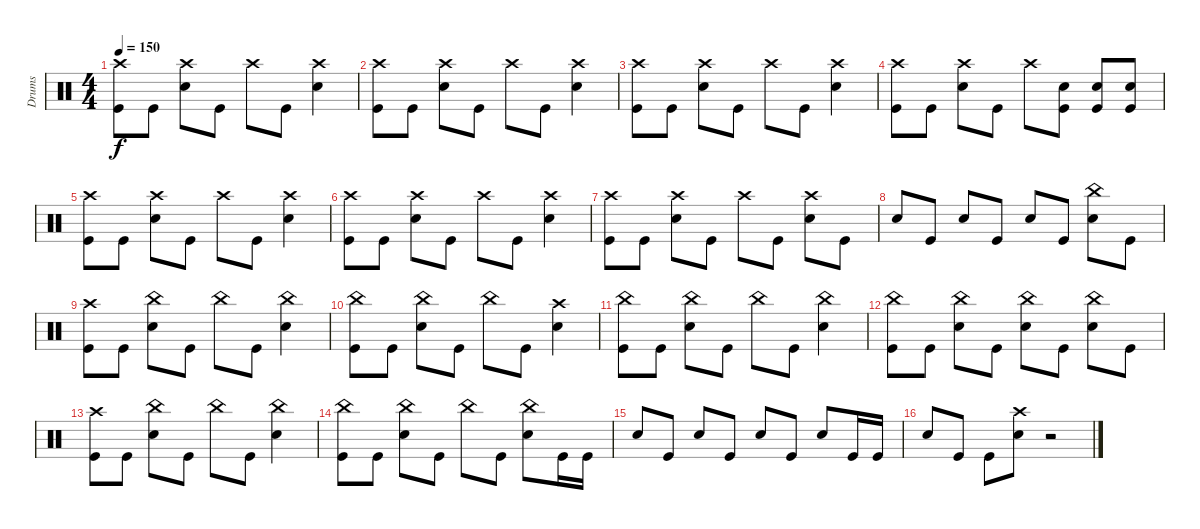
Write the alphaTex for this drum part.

\track ("Drums" "Drums") {instrument percussion}
\staff {score}
\articulation defaults
\ts (4 4)
\tempo 150
\clef neutral
\ks c
("Kick (hit)" "Crash high (hit)").8{dy f} "Kick (hit)".8 ("Snare (hit) 2" "Crash high (hit)").8 "Kick (hit)".8 "Crash high (hit)".8 "Kick (hit)".8 ("Snare (hit) 2" "Crash high (hit)").4 |
("Kick (hit)" "Crash high (hit)").8 "Kick (hit)".8 ("Snare (hit) 2" "Crash high (hit)").8 "Kick (hit)".8 "Crash high (hit)".8 "Kick (hit)".8 ("Snare (hit) 2" "Crash high (hit)").4 |
("Kick (hit)" "Crash high (hit)").8 "Kick (hit)".8 ("Snare (hit) 2" "Crash high (hit)").8 "Kick (hit)".8 "Crash high (hit)".8 "Kick (hit)".8 ("Snare (hit) 2" "Crash high (hit)").4 |
("Kick (hit)" "Crash high (hit)").8 "Kick (hit)".8 ("Snare (hit) 2" "Crash high (hit)").8 "Kick (hit)".8 "Crash high (hit)".8 ("Kick (hit)" "Snare (hit) 2").8 ("Snare (hit) 2" "Kick (hit)").8 ("Snare (hit) 2" "Kick (hit)").8 |
("Kick (hit)" "Crash high (hit)").8 "Kick (hit)".8 ("Snare (hit) 2" "Crash high (hit)").8 "Kick (hit)".8 "Crash high (hit)".8 "Kick (hit)".8 ("Snare (hit) 2" "Crash high (hit)").4 |
("Kick (hit)" "Crash high (hit)").8 "Kick (hit)".8 ("Snare (hit) 2" "Crash high (hit)").8 "Kick (hit)".8 "Crash high (hit)".8 "Kick (hit)".8 ("Snare (hit) 2" "Crash high (hit)").4 |
("Kick (hit)" "Crash high (hit)").8 "Kick (hit)".8 ("Snare (hit) 2" "Crash high (hit)").8 "Kick (hit)".8 "Crash high (hit)".8 "Kick (hit)".8 ("Snare (hit) 2" "Crash high (hit)").8 "Kick (hit)".8 |
"Snare (hit) 2".8 "Kick (hit)".8 "Snare (hit) 2".8 "Kick (hit)".8 "Snare (hit) 2".8 "Kick (hit)".8 ("Snare (hit) 2" "China (hit)").8 "Kick (hit)".8 |
("Kick (hit)" "Crash high (hit)").8 "Kick (hit)".8 ("Snare (hit) 2" "China (hit)").8 "Kick (hit)".8 "China (hit)".8 "Kick (hit)".8 ("Snare (hit) 2" "China (hit)").4 |
("Kick (hit)" "China (hit)").8 "Kick (hit)".8 ("Snare (hit) 2" "China (hit)").8 "Kick (hit)".8 "China (hit)".8 "Kick (hit)".8 ("Snare (hit) 2" "Crash high (hit)").4 |
("Kick (hit)" "China (hit)").8 "Kick (hit)".8 ("Snare (hit) 2" "China (hit)").8 "Kick (hit)".8 "China (hit)".8 "Kick (hit)".8 ("Snare (hit) 2" "China (hit)").4 |
("Kick (hit)" "China (hit)").8 "Kick (hit)".8 ("Snare (hit) 2" "China (hit)").8 "Kick (hit)".8 ("Snare (hit) 2" "China (hit)").8 "Kick (hit)".8 ("Snare (hit) 2" "China (hit)").8 "Kick (hit)".8 |
("Kick (hit)" "Crash high (hit)").8 "Kick (hit)".8 ("Snare (hit) 2" "China (hit)").8 "Kick (hit)".8 "China (hit)".8 "Kick (hit)".8 ("Snare (hit) 2" "China (hit)").4 |
("Kick (hit)" "China (hit)").8 "Kick (hit)".8 ("Snare (hit) 2" "China (hit)").8 "Kick (hit)".8 "China (hit)".8 "Kick (hit)".8 ("Snare (hit) 2" "China (hit)").8 "Kick (hit)".16 "Kick (hit)".16 |
"Snare (hit) 2".8 "Kick (hit)".8 "Snare (hit) 2".8 "Kick (hit)".8 "Snare (hit) 2".8 "Kick (hit)".8 "Snare (hit) 2".8 "Kick (hit)".16 "Kick (hit)".16 |
"Snare (hit) 2".8 "Kick (hit)".8 "Kick (hit)".8 ("Snare (hit) 2" "Crash high (hit)").8 r.2
